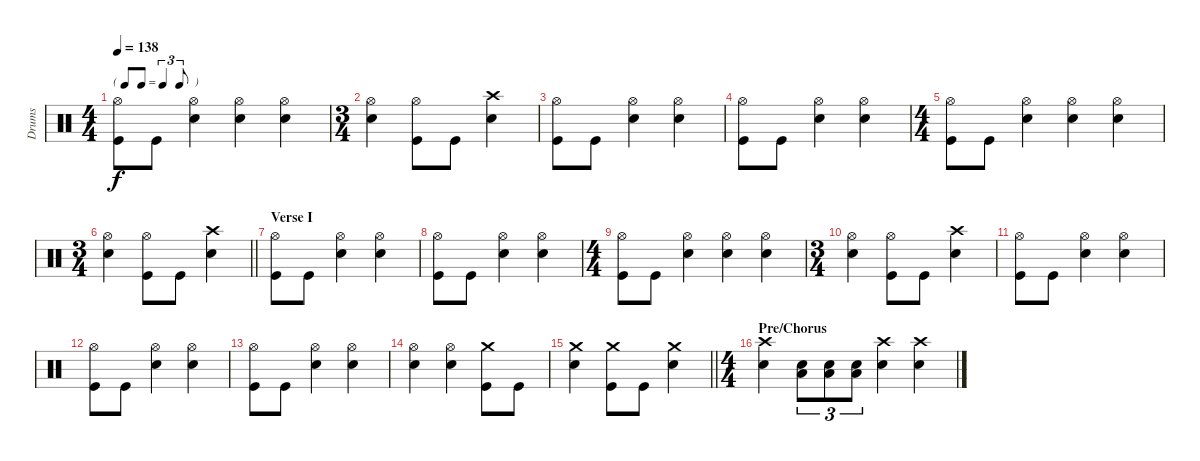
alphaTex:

\track ("Drums" "Drums") {instrument percussion}
\staff {score}
\articulation defaults
\ts (4 4)
\tf triplet8th
\tempo 138
\clef neutral
\ks c
("Hi-Hat (open)" "Kick (hit)").8{dy f} "Kick (hit)".8 ("Hi-Hat (open)" "Snare (hit) 2").4 ("Hi-Hat (open)" "Snare (hit) 2").4 ("Hi-Hat (open)" "Snare (hit) 2").4 |
\ts (3 4)
("Hi-Hat (open)" "Snare (hit) 2").4 ("Hi-Hat (open)" "Kick (hit)").8 "Kick (hit)".8 ("Crash high (hit)" "Snare (hit) 2").4 |
("Hi-Hat (open)" "Kick (hit)").8 "Kick (hit)".8 ("Hi-Hat (open)" "Snare (hit) 2").4 ("Hi-Hat (open)" "Snare (hit) 2").4 |
("Hi-Hat (open)" "Kick (hit)").8 "Kick (hit)".8 ("Hi-Hat (open)" "Snare (hit) 2").4 ("Hi-Hat (open)" "Snare (hit) 2").4 |
\ts (4 4)
("Hi-Hat (open)" "Kick (hit)").8 "Kick (hit)".8 ("Hi-Hat (open)" "Snare (hit) 2").4 ("Hi-Hat (open)" "Snare (hit) 2").4 ("Hi-Hat (open)" "Snare (hit) 2").4 |
\ts (3 4)
\barLineRight lightlight
("Hi-Hat (open)" "Snare (hit) 2").4 ("Hi-Hat (open)" "Kick (hit)").8 "Kick (hit)".8 ("Crash high (hit)" "Snare (hit) 2").4 |
\section ("" "Verse I")
("Hi-Hat (open)" "Kick (hit)").8 "Kick (hit)".8 ("Hi-Hat (open)" "Snare (hit) 2").4 ("Hi-Hat (open)" "Snare (hit) 2").4 |
("Hi-Hat (open)" "Kick (hit)").8 "Kick (hit)".8 ("Hi-Hat (open)" "Snare (hit) 2").4 ("Hi-Hat (open)" "Snare (hit) 2").4 |
\ts (4 4)
("Hi-Hat (open)" "Kick (hit)").8 "Kick (hit)".8 ("Hi-Hat (open)" "Snare (hit) 2").4 ("Hi-Hat (open)" "Snare (hit) 2").4 ("Hi-Hat (open)" "Snare (hit) 2").4 |
\ts (3 4)
("Hi-Hat (open)" "Snare (hit) 2").4 ("Hi-Hat (open)" "Kick (hit)").8 "Kick (hit)".8 ("Crash high (hit)" "Snare (hit) 2").4 |
("Hi-Hat (open)" "Kick (hit)").8 "Kick (hit)".8 ("Hi-Hat (open)" "Snare (hit) 2").4 ("Hi-Hat (open)" "Snare (hit) 2").4 |
("Hi-Hat (open)" "Kick (hit)").8 "Kick (hit)".8 ("Hi-Hat (open)" "Snare (hit) 2").4 ("Hi-Hat (open)" "Snare (hit) 2").4 |
("Hi-Hat (open)" "Kick (hit)").8 "Kick (hit)".8 ("Hi-Hat (open)" "Snare (hit) 2").4 ("Hi-Hat (open)" "Snare (hit) 2").4 |
("Hi-Hat (open)" "Snare (hit) 2").4 ("Hi-Hat (open)" "Snare (hit) 2").4 ("Crash medium (hit)" "Kick (hit)").8 "Kick (hit)".8 |
\barLineRight lightlight
("Crash medium (hit)" "Snare (hit) 2").4 ("Crash medium (hit)" "Kick (hit)").8 "Kick (hit)".8 ("Crash medium (hit)" "Snare (hit) 2").4 |
\ts (4 4)
\section ("" "Pre/Chorus")
("Crash high (hit)" "Snare (hit) 2").4 ("Low Tom (hit)" "Snare (hit) 2").8{tu (3 2)} ("Low Tom (hit)" "Snare (hit) 2").8{tu (3 2)} ("Low Tom (hit)" "Snare (hit) 2").8{tu (3 2)} ("Crash high (hit)" "Snare (hit) 2").4 ("Crash high (hit)" "Snare (hit) 2").4
